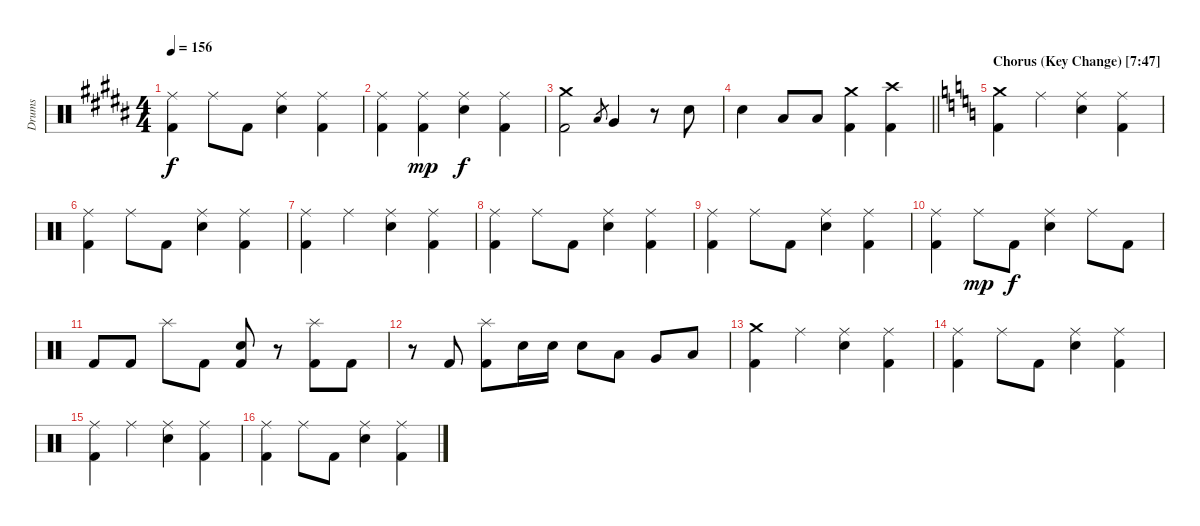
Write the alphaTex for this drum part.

\track ("Drums" "Drums") {instrument percussion}
\staff {score}
\articulation defaults
\ts (4 4)
\tempo 156
\clef neutral
\ks g#minor
("Ride (middle)" "Kick (hit) 2").4{dy f} "Ride (middle)".8 "Kick (hit) 2".8 ("Ride (middle)" "Snare (hit) 2").4 ("Ride (middle)" "Kick (hit) 2").4 |
("Ride (middle)" "Kick (hit) 2").4 ("Ride (middle)" "Kick (hit) 2").4{dy mp} ("Ride (middle)" "Snare (hit) 2").4{dy f} ("Ride (middle)" "Kick (hit) 2").4 |
("Crash medium (hit)" "Kick (hit) 2").2 "Low Floor Tom (hit)".8{gr} "Very Low Tom (hit)".4 r.8 "Snare (hit) 2".8 |
\barLineRight lightlight "Snare (hit) 2".4 "Low Floor Tom (hit)".8 "Low Floor Tom (hit)".8
("Crash medium (hit)" "Kick (hit) 2").4 ("Crash high (hit)" "Kick (hit) 2").4 |
\section ("" "Chorus (Key Change) [7:47]")
\ks aminor
("Crash medium (hit)" "Kick (hit) 2").4 "Ride (middle)".4 ("Ride (middle)" "Snare (hit) 2").4 ("Ride (middle)" "Kick (hit) 2").4 |
("Ride (middle)" "Kick (hit) 2").4 "Ride (middle)".8 "Kick (hit) 2".8 ("Ride (middle)" "Snare (hit) 2").4 ("Ride (middle)" "Kick (hit) 2").4 |
("Ride (middle)" "Kick (hit) 2").4 "Ride (middle)".4 ("Ride (middle)" "Snare (hit) 2").4 ("Ride (middle)" "Kick (hit) 2").4 |
("Ride (middle)" "Kick (hit) 2").4 "Ride (middle)".8 "Kick (hit) 2".8 ("Ride (middle)" "Snare (hit) 2").4 ("Ride (middle)" "Kick (hit) 2").4 |
("Ride (middle)" "Kick (hit) 2").4 "Ride (middle)".8 "Kick (hit) 2".8 ("Ride (middle)" "Snare (hit) 2").4 ("Ride (middle)" "Kick (hit) 2").4 |
("Ride (middle)" "Kick (hit) 2").4 "Ride (middle)".8{dy mp} "Kick (hit) 2".8{dy f} ("Ride (middle)" "Snare (hit) 2").4 "Ride (middle)".8 "Kick (hit) 2".8 |
"Kick (hit) 2".8 "Kick (hit) 2".8 "Splash (hit)".8 "Kick (hit) 2".8 ("Snare (hit) 2" "Kick (hit) 2").8 r.8 ("Splash (hit)" "Kick (hit) 2").8 "Kick (hit) 2".8 |
r.8 "Kick (hit) 2".8 ("Splash (hit)" "Kick (hit) 2").8 "Snare (hit) 2".16 "Snare (hit) 2".16 "Snare (hit) 2".8 "Low Tom (hit)".8 "Very Low Tom (hit)".8 "Low Floor Tom (hit)".8 |
("Crash medium (hit)" "Kick (hit) 2").4 "Ride (middle)".4 ("Ride (middle)" "Snare (hit) 2").4 ("Ride (middle)" "Kick (hit) 2").4 |
("Ride (middle)" "Kick (hit) 2").4 "Ride (middle)".8 "Kick (hit) 2".8 ("Ride (middle)" "Snare (hit) 2").4 ("Ride (middle)" "Kick (hit) 2").4 |
("Ride (middle)" "Kick (hit) 2").4 "Ride (middle)".4 ("Ride (middle)" "Snare (hit) 2").4 ("Ride (middle)" "Kick (hit) 2").4 |
("Ride (middle)" "Kick (hit) 2").4 "Ride (middle)".8 "Kick (hit) 2".8 ("Ride (middle)" "Snare (hit) 2").4 ("Ride (middle)" "Kick (hit) 2").4
